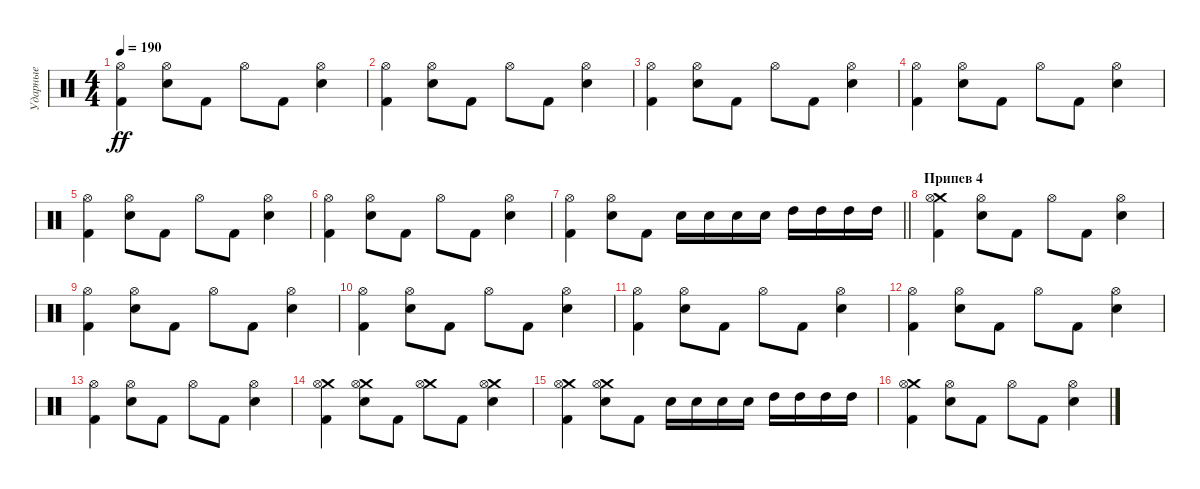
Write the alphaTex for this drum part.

\track ("Ударные" "Ударные") {instrument percussion}
\staff {score}
\articulation defaults
\ts (4 4)
\tempo 190
\clef neutral
\ks c
("Kick (hit) 2" "Hi-Hat (open)").4{dy ff} ("Electric Snare (hit)" "Hi-Hat (open)").8 "Kick (hit) 2".8 "Hi-Hat (open)".8 "Kick (hit) 2".8 ("Electric Snare (hit)" "Hi-Hat (open)").4 |
("Kick (hit) 2" "Hi-Hat (open)").4 ("Electric Snare (hit)" "Hi-Hat (open)").8 "Kick (hit) 2".8 "Hi-Hat (open)".8 "Kick (hit) 2".8 ("Electric Snare (hit)" "Hi-Hat (open)").4 |
("Kick (hit) 2" "Hi-Hat (open)").4 ("Electric Snare (hit)" "Hi-Hat (open)").8 "Kick (hit) 2".8 "Hi-Hat (open)".8 "Kick (hit) 2".8 ("Electric Snare (hit)" "Hi-Hat (open)").4 |
("Kick (hit) 2" "Hi-Hat (open)").4 ("Electric Snare (hit)" "Hi-Hat (open)").8 "Kick (hit) 2".8 "Hi-Hat (open)".8 "Kick (hit) 2".8 ("Electric Snare (hit)" "Hi-Hat (open)").4 |
("Kick (hit) 2" "Hi-Hat (open)").4 ("Electric Snare (hit)" "Hi-Hat (open)").8 "Kick (hit) 2".8 "Hi-Hat (open)".8 "Kick (hit) 2".8 ("Electric Snare (hit)" "Hi-Hat (open)").4 |
("Kick (hit) 2" "Hi-Hat (open)").4 ("Electric Snare (hit)" "Hi-Hat (open)").8 "Kick (hit) 2".8 "Hi-Hat (open)".8 "Kick (hit) 2".8 ("Electric Snare (hit)" "Hi-Hat (open)").4 |
\barLineRight lightlight
("Kick (hit) 2" "Hi-Hat (open)").4 ("Electric Snare (hit)" "Hi-Hat (open)").8 "Kick (hit) 2".8 "Electric Snare (hit)".16 "Electric Snare (hit)".16 "Electric Snare (hit)".16 "Electric Snare (hit)".16 "High Tom (hit)".16 "High Tom (hit)".16 "High Tom (hit)".16 "High Tom (hit)".16 |
\section ("" "Припев 4")
("Crash medium (hit)" "Kick (hit) 2" "Hi-Hat (open)").4 ("Electric Snare (hit)" "Hi-Hat (open)").8 "Kick (hit) 2".8 "Hi-Hat (open)".8 "Kick (hit) 2".8 ("Electric Snare (hit)" "Hi-Hat (open)").4 |
("Kick (hit) 2" "Hi-Hat (open)").4 ("Electric Snare (hit)" "Hi-Hat (open)").8 "Kick (hit) 2".8 "Hi-Hat (open)".8 "Kick (hit) 2".8 ("Electric Snare (hit)" "Hi-Hat (open)").4 |
("Kick (hit) 2" "Hi-Hat (open)").4 ("Electric Snare (hit)" "Hi-Hat (open)").8 "Kick (hit) 2".8 "Hi-Hat (open)".8 "Kick (hit) 2".8 ("Electric Snare (hit)" "Hi-Hat (open)").4 |
("Kick (hit) 2" "Hi-Hat (open)").4 ("Electric Snare (hit)" "Hi-Hat (open)").8 "Kick (hit) 2".8 "Hi-Hat (open)".8 "Kick (hit) 2".8 ("Electric Snare (hit)" "Hi-Hat (open)").4 |
("Kick (hit) 2" "Hi-Hat (open)").4 ("Electric Snare (hit)" "Hi-Hat (open)").8 "Kick (hit) 2".8 "Hi-Hat (open)".8 "Kick (hit) 2".8 ("Electric Snare (hit)" "Hi-Hat (open)").4 |
("Kick (hit) 2" "Hi-Hat (open)").4 ("Electric Snare (hit)" "Hi-Hat (open)").8 "Kick (hit) 2".8 "Hi-Hat (open)".8 "Kick (hit) 2".8 ("Electric Snare (hit)" "Hi-Hat (open)").4 |
("Crash medium (hit)" "Kick (hit) 2" "Hi-Hat (open)").4 ("Crash medium (hit)" "Electric Snare (hit)" "Hi-Hat (open)").8 "Kick (hit) 2".8 ("Crash medium (hit)" "Hi-Hat (open)").8 "Kick (hit) 2".8 ("Crash medium (hit)" "Electric Snare (hit)" "Hi-Hat (open)").4 |
("Crash medium (hit)" "Kick (hit) 2" "Hi-Hat (open)").4 ("Crash medium (hit)" "Electric Snare (hit)" "Hi-Hat (open)").8 "Kick (hit) 2".8 "Electric Snare (hit)".16 "Electric Snare (hit)".16 "Electric Snare (hit)".16 "Electric Snare (hit)".16 "High Tom (hit)".16 "High Tom (hit)".16 "High Tom (hit)".16 "High Tom (hit)".16 |
("Crash medium (hit)" "Kick (hit) 2" "Hi-Hat (open)").4 ("Electric Snare (hit)" "Hi-Hat (open)").8 "Kick (hit) 2".8 "Hi-Hat (open)".8 "Kick (hit) 2".8 ("Electric Snare (hit)" "Hi-Hat (open)").4
